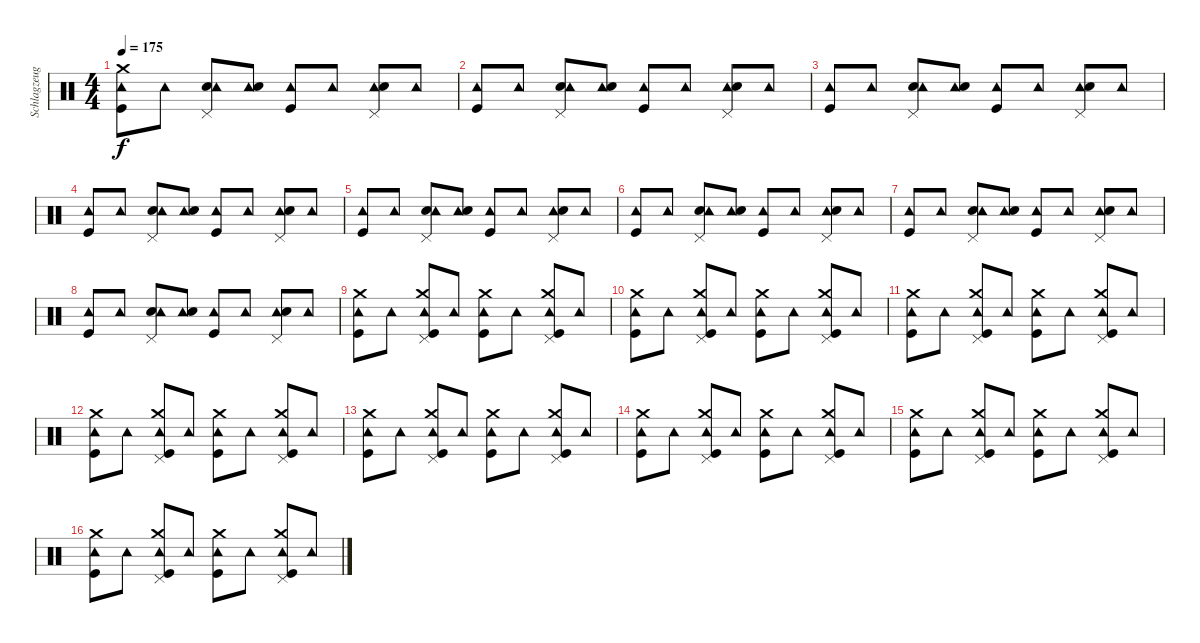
\track ("Schlagzeug - Bela B." "Schlagzeug") {instrument percussion}
\staff {score}
\articulation defaults
\ts (4 4)
\tempo 175
\clef neutral
\ks c
("Tambourine (hit)" "Kick (hit)" "Crash medium (hit)").8{dy f} "Tambourine (hit)".8 ("Electric Snare (hit)" "Tambourine (hit)" "Pedal Hi-Hat (hit)").8 ("Tambourine (hit)" "Electric Snare (hit)").8 ("Tambourine (hit)" "Kick (hit)").8 "Tambourine (hit)".8 ("Pedal Hi-Hat (hit)" "Tambourine (hit)" "Electric Snare (hit)").8 "Tambourine (hit)".8 |
("Tambourine (hit)" "Kick (hit)").8 "Tambourine (hit)".8 ("Electric Snare (hit)" "Tambourine (hit)" "Pedal Hi-Hat (hit)").8 ("Tambourine (hit)" "Electric Snare (hit)").8 ("Tambourine (hit)" "Kick (hit)").8 "Tambourine (hit)".8 ("Pedal Hi-Hat (hit)" "Tambourine (hit)" "Electric Snare (hit)").8 "Tambourine (hit)".8 |
("Tambourine (hit)" "Kick (hit)").8 "Tambourine (hit)".8 ("Electric Snare (hit)" "Tambourine (hit)" "Pedal Hi-Hat (hit)").8 ("Tambourine (hit)" "Electric Snare (hit)").8 ("Tambourine (hit)" "Kick (hit)").8 "Tambourine (hit)".8 ("Pedal Hi-Hat (hit)" "Tambourine (hit)" "Electric Snare (hit)").8 "Tambourine (hit)".8 |
("Tambourine (hit)" "Kick (hit)").8 "Tambourine (hit)".8 ("Electric Snare (hit)" "Tambourine (hit)" "Pedal Hi-Hat (hit)").8 ("Tambourine (hit)" "Electric Snare (hit)").8 ("Tambourine (hit)" "Kick (hit)").8 "Tambourine (hit)".8 ("Pedal Hi-Hat (hit)" "Tambourine (hit)" "Electric Snare (hit)").8 "Tambourine (hit)".8 |
("Tambourine (hit)" "Kick (hit)").8 "Tambourine (hit)".8 ("Electric Snare (hit)" "Tambourine (hit)" "Pedal Hi-Hat (hit)").8 ("Tambourine (hit)" "Electric Snare (hit)").8 ("Tambourine (hit)" "Kick (hit)").8 "Tambourine (hit)".8 ("Pedal Hi-Hat (hit)" "Tambourine (hit)" "Electric Snare (hit)").8 "Tambourine (hit)".8 |
("Tambourine (hit)" "Kick (hit)").8 "Tambourine (hit)".8 ("Electric Snare (hit)" "Tambourine (hit)" "Pedal Hi-Hat (hit)").8 ("Tambourine (hit)" "Electric Snare (hit)").8 ("Tambourine (hit)" "Kick (hit)").8 "Tambourine (hit)".8 ("Pedal Hi-Hat (hit)" "Tambourine (hit)" "Electric Snare (hit)").8 "Tambourine (hit)".8 |
("Tambourine (hit)" "Kick (hit)").8 "Tambourine (hit)".8 ("Electric Snare (hit)" "Tambourine (hit)" "Pedal Hi-Hat (hit)").8 ("Tambourine (hit)" "Electric Snare (hit)").8 ("Tambourine (hit)" "Kick (hit)").8 "Tambourine (hit)".8 ("Pedal Hi-Hat (hit)" "Tambourine (hit)" "Electric Snare (hit)").8 "Tambourine (hit)".8 |
("Tambourine (hit)" "Kick (hit)").8 "Tambourine (hit)".8 ("Electric Snare (hit)" "Tambourine (hit)" "Pedal Hi-Hat (hit)").8 ("Tambourine (hit)" "Electric Snare (hit)").8 ("Tambourine (hit)" "Kick (hit)").8 "Tambourine (hit)".8 ("Pedal Hi-Hat (hit)" "Tambourine (hit)" "Electric Snare (hit)").8 "Tambourine (hit)".8 |
("Tambourine (hit)" "Kick (hit)" "Crash medium (hit)").8 "Tambourine (hit)".8 ("Tambourine (hit)" "Pedal Hi-Hat (hit)" "Kick (hit)" "Crash medium (hit)").8 "Tambourine (hit)".8 ("Tambourine (hit)" "Kick (hit)" "Crash medium (hit)").8 "Tambourine (hit)".8 ("Pedal Hi-Hat (hit)" "Tambourine (hit)" "Kick (hit)" "Crash medium (hit)").8 "Tambourine (hit)".8 |
("Tambourine (hit)" "Kick (hit)" "Crash medium (hit)").8 "Tambourine (hit)".8 ("Tambourine (hit)" "Pedal Hi-Hat (hit)" "Kick (hit)" "Crash medium (hit)").8 "Tambourine (hit)".8 ("Tambourine (hit)" "Kick (hit)" "Crash medium (hit)").8 "Tambourine (hit)".8 ("Pedal Hi-Hat (hit)" "Tambourine (hit)" "Kick (hit)" "Crash medium (hit)").8 "Tambourine (hit)".8 |
("Tambourine (hit)" "Kick (hit)" "Crash medium (hit)").8 "Tambourine (hit)".8 ("Tambourine (hit)" "Pedal Hi-Hat (hit)" "Kick (hit)" "Crash medium (hit)").8 "Tambourine (hit)".8 ("Tambourine (hit)" "Kick (hit)" "Crash medium (hit)").8 "Tambourine (hit)".8 ("Pedal Hi-Hat (hit)" "Tambourine (hit)" "Kick (hit)" "Crash medium (hit)").8 "Tambourine (hit)".8 |
("Tambourine (hit)" "Kick (hit)" "Crash medium (hit)").8 "Tambourine (hit)".8 ("Tambourine (hit)" "Pedal Hi-Hat (hit)" "Kick (hit)" "Crash medium (hit)").8 "Tambourine (hit)".8 ("Tambourine (hit)" "Kick (hit)" "Crash medium (hit)").8 "Tambourine (hit)".8 ("Pedal Hi-Hat (hit)" "Tambourine (hit)" "Kick (hit)" "Crash medium (hit)").8 "Tambourine (hit)".8 |
("Tambourine (hit)" "Kick (hit)" "Crash medium (hit)").8 "Tambourine (hit)".8 ("Tambourine (hit)" "Pedal Hi-Hat (hit)" "Kick (hit)" "Crash medium (hit)").8 "Tambourine (hit)".8 ("Tambourine (hit)" "Kick (hit)" "Crash medium (hit)").8 "Tambourine (hit)".8 ("Pedal Hi-Hat (hit)" "Tambourine (hit)" "Kick (hit)" "Crash medium (hit)").8 "Tambourine (hit)".8 |
("Tambourine (hit)" "Kick (hit)" "Crash medium (hit)").8 "Tambourine (hit)".8 ("Tambourine (hit)" "Pedal Hi-Hat (hit)" "Kick (hit)" "Crash medium (hit)").8 "Tambourine (hit)".8 ("Tambourine (hit)" "Kick (hit)" "Crash medium (hit)").8 "Tambourine (hit)".8 ("Pedal Hi-Hat (hit)" "Tambourine (hit)" "Kick (hit)" "Crash medium (hit)").8 "Tambourine (hit)".8 |
("Tambourine (hit)" "Kick (hit)" "Crash medium (hit)").8 "Tambourine (hit)".8 ("Tambourine (hit)" "Pedal Hi-Hat (hit)" "Kick (hit)" "Crash medium (hit)").8 "Tambourine (hit)".8 ("Tambourine (hit)" "Kick (hit)" "Crash medium (hit)").8 "Tambourine (hit)".8 ("Pedal Hi-Hat (hit)" "Tambourine (hit)" "Kick (hit)" "Crash medium (hit)").8 "Tambourine (hit)".8 |
("Tambourine (hit)" "Kick (hit)" "Crash medium (hit)").8 "Tambourine (hit)".8 ("Tambourine (hit)" "Pedal Hi-Hat (hit)" "Kick (hit)" "Crash medium (hit)").8 "Tambourine (hit)".8 ("Tambourine (hit)" "Kick (hit)" "Crash medium (hit)").8 "Tambourine (hit)".8 ("Pedal Hi-Hat (hit)" "Tambourine (hit)" "Kick (hit)" "Crash medium (hit)").8 "Tambourine (hit)".8
